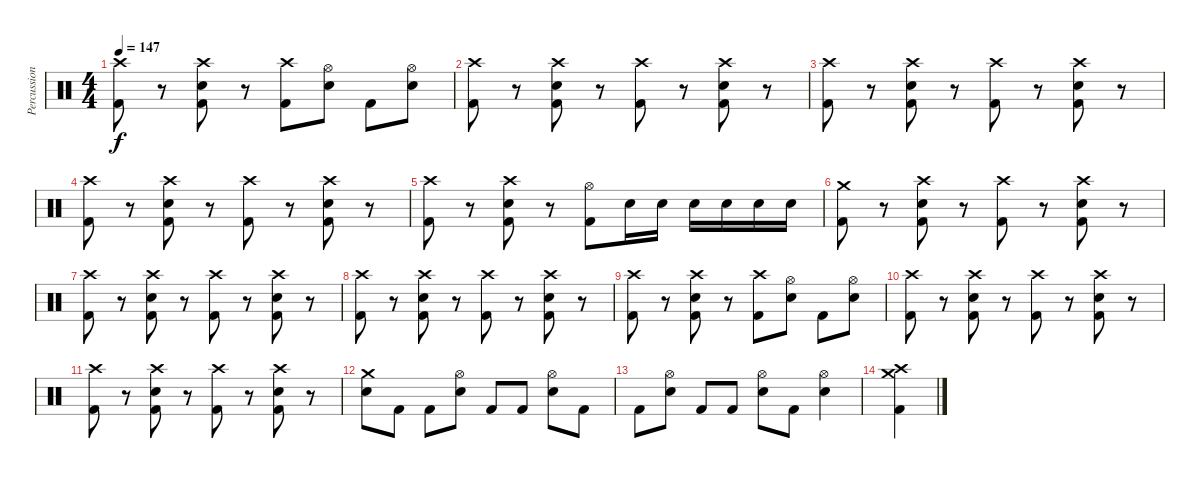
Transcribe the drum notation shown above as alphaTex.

\track ("Percussion" "Percussion") {instrument percussion}
\staff {score}
\articulation defaults
\ts (4 4)
\tempo 147
\clef neutral
\ks c
("Crash high (hit)" "Kick (hit) 2").8{dy f} r.8 ("Crash high (hit)" "Kick (hit) 2" "Electric Snare (hit)").8 r.8 ("Crash high (hit)" "Kick (hit) 2").8 ("Hi-Hat (open)" "Electric Snare (hit)").8 "Kick (hit) 2".8 ("Hi-Hat (open)" "Electric Snare (hit)").8 |
("Crash high (hit)" "Kick (hit) 2").8 r.8 ("Crash high (hit)" "Kick (hit) 2" "Electric Snare (hit)").8 r.8 ("Crash high (hit)" "Kick (hit) 2").8 r.8 ("Crash high (hit)" "Kick (hit) 2" "Electric Snare (hit)").8 r.8 |
("Crash high (hit)" "Kick (hit) 2").8 r.8 ("Crash high (hit)" "Kick (hit) 2" "Electric Snare (hit)").8 r.8 ("Crash high (hit)" "Kick (hit) 2").8 r.8 ("Crash high (hit)" "Kick (hit) 2" "Electric Snare (hit)").8 r.8 |
("Crash high (hit)" "Kick (hit) 2").8 r.8 ("Crash high (hit)" "Kick (hit) 2" "Electric Snare (hit)").8 r.8 ("Crash high (hit)" "Kick (hit) 2").8 r.8 ("Crash high (hit)" "Kick (hit) 2" "Electric Snare (hit)").8 r.8 |
("Crash high (hit)" "Kick (hit) 2").8 r.8 ("Crash high (hit)" "Kick (hit) 2" "Electric Snare (hit)").8 r.8 ("Hi-Hat (open)" "Kick (hit) 2").8 "Electric Snare (hit)".16 "Electric Snare (hit)".16 "Electric Snare (hit)".16 "Electric Snare (hit)".16 "Electric Snare (hit)".16 "Electric Snare (hit)".16 |
("Crash medium (hit)" "Kick (hit) 2").8 r.8 ("Crash high (hit)" "Kick (hit) 2" "Electric Snare (hit)").8 r.8 ("Crash high (hit)" "Kick (hit) 2").8 r.8 ("Crash high (hit)" "Kick (hit) 2" "Electric Snare (hit)").8 r.8 |
("Crash high (hit)" "Kick (hit) 2").8 r.8 ("Crash high (hit)" "Kick (hit) 2" "Electric Snare (hit)").8 r.8 ("Crash high (hit)" "Kick (hit) 2").8 r.8 ("Crash high (hit)" "Kick (hit) 2" "Electric Snare (hit)").8 r.8 |
("Crash high (hit)" "Kick (hit) 2").8 r.8 ("Crash high (hit)" "Kick (hit) 2" "Electric Snare (hit)").8 r.8 ("Crash high (hit)" "Kick (hit) 2").8 r.8 ("Crash high (hit)" "Kick (hit) 2" "Electric Snare (hit)").8 r.8 |
("Crash high (hit)" "Kick (hit) 2").8 r.8 ("Crash high (hit)" "Kick (hit) 2" "Electric Snare (hit)").8 r.8 ("Crash high (hit)" "Kick (hit) 2").8 ("Hi-Hat (open)" "Electric Snare (hit)").8 "Kick (hit) 2".8 ("Hi-Hat (open)" "Electric Snare (hit)").8 |
("Crash high (hit)" "Kick (hit) 2").8 r.8 ("Crash high (hit)" "Kick (hit) 2" "Electric Snare (hit)").8 r.8 ("Crash high (hit)" "Kick (hit) 2").8 r.8 ("Crash high (hit)" "Kick (hit) 2" "Electric Snare (hit)").8 r.8 |
("Crash high (hit)" "Kick (hit) 2").8 r.8 ("Crash high (hit)" "Kick (hit) 2" "Electric Snare (hit)").8 r.8 ("Crash high (hit)" "Kick (hit) 2").8 r.8 ("Crash high (hit)" "Kick (hit) 2" "Electric Snare (hit)").8 r.8 |
("Crash medium (hit)" "Electric Snare (hit)").8 "Kick (hit) 2".8 "Kick (hit) 2".8 ("Hi-Hat (open)" "Electric Snare (hit)").8 "Kick (hit) 2".8 "Kick (hit) 2".8 ("Hi-Hat (open)" "Electric Snare (hit)").8 "Kick (hit) 2".8 |
"Kick (hit) 2".8 ("Electric Snare (hit)" "Hi-Hat (open)").8 "Kick (hit) 2".8 "Kick (hit) 2".8 ("Electric Snare (hit)" "Hi-Hat (open)").8 "Kick (hit) 2".8 ("Electric Snare (hit)" "Hi-Hat (open)").4 |
("Crash medium (hit)" "Crash high (hit)" "Kick (hit) 2").4
